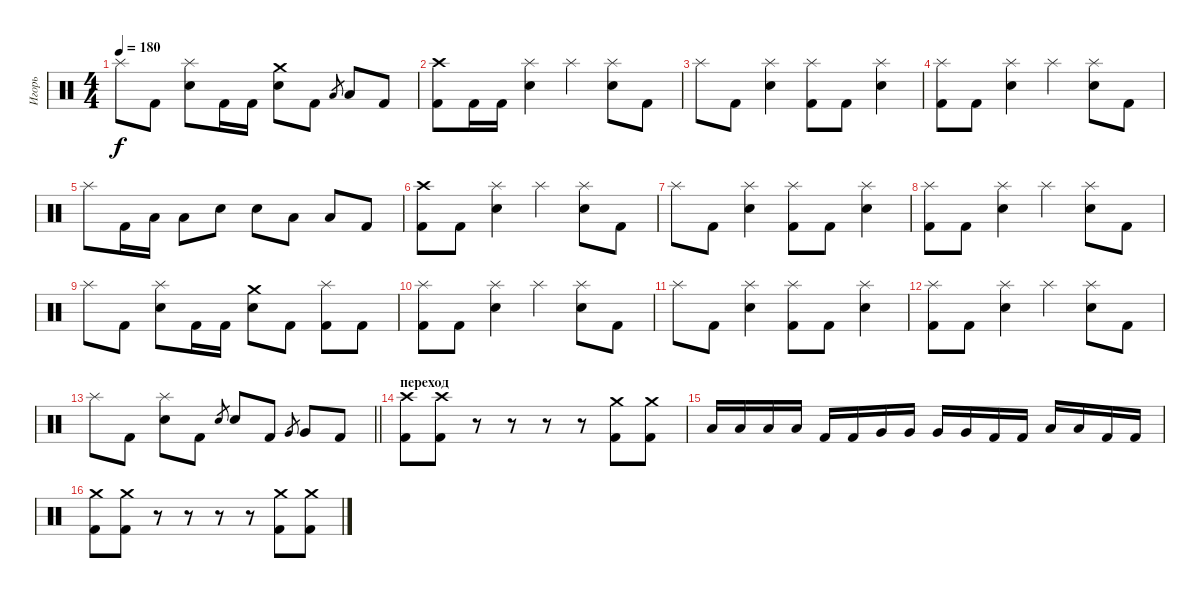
\track ("Игорь" "Игорь") {instrument percussion}
\staff {score}
\articulation defaults
\ts (4 4)
\tempo 180
\clef neutral
\ks c "Splash (hit)".8{dy f} "Kick (hit) 2".8
("Splash (hit)" "Electric Snare (hit)").8 "Kick (hit) 2".16 "Kick (hit) 2".16 ("Crash medium (hit)" "Electric Snare (hit)").8 "Kick (hit) 2".8 "Low Tom (hit)".8{gr} "Low Tom (hit)".8 "Kick (hit) 2".8 |
("Crash high (hit)" "Kick (hit) 2").8 "Kick (hit) 2".16 "Kick (hit) 2".16 ("Splash (hit)" "Electric Snare (hit)").4 "Splash (hit)".4 ("Splash (hit)" "Electric Snare (hit)").8 "Kick (hit) 2".8 |
"Splash (hit)".8 "Kick (hit) 2".8 ("Splash (hit)" "Electric Snare (hit)").4 ("Splash (hit)" "Kick (hit) 2").8 "Kick (hit) 2".8 ("Splash (hit)" "Electric Snare (hit)").4 |
("Splash (hit)" "Kick (hit) 2").8 "Kick (hit) 2".8 ("Splash (hit)" "Electric Snare (hit)").4 "Splash (hit)".4 ("Splash (hit)" "Electric Snare (hit)").8 "Kick (hit) 2".8 |
"Splash (hit)".8 "Kick (hit) 2".16 "Low Tom (hit)".16 "Low Tom (hit)".8 "Electric Snare (hit)".8 "Electric Snare (hit)".8 "Low Tom (hit)".8 "Low Floor Tom (hit)".8 "Kick (hit) 2".8 |
("Crash high (hit)" "Kick (hit) 2").8 "Kick (hit) 2".8 ("Splash (hit)" "Electric Snare (hit)").4 "Splash (hit)".4 ("Splash (hit)" "Electric Snare (hit)").8 "Kick (hit) 2".8 |
"Splash (hit)".8 "Kick (hit) 2".8 ("Splash (hit)" "Electric Snare (hit)").4 ("Splash (hit)" "Kick (hit) 2").8 "Kick (hit) 2".8 ("Splash (hit)" "Electric Snare (hit)").4 |
("Splash (hit)" "Kick (hit) 2").8 "Kick (hit) 2".8 ("Splash (hit)" "Electric Snare (hit)").4 "Splash (hit)".4 ("Splash (hit)" "Electric Snare (hit)").8 "Kick (hit) 2".8 |
"Splash (hit)".8 "Kick (hit) 2".8 ("Splash (hit)" "Electric Snare (hit)").8 "Kick (hit) 2".16 "Kick (hit) 2".16 ("Crash medium (hit)" "Electric Snare (hit)").8 "Kick (hit) 2".8 ("Splash (hit)" "Kick (hit) 2").8 "Kick (hit) 2".8 |
("Splash (hit)" "Kick (hit) 2").8 "Kick (hit) 2".8 ("Splash (hit)" "Electric Snare (hit)").4 "Splash (hit)".4 ("Splash (hit)" "Electric Snare (hit)").8 "Kick (hit) 2".8 |
"Splash (hit)".8 "Kick (hit) 2".8 ("Splash (hit)" "Electric Snare (hit)").4 ("Splash (hit)" "Kick (hit) 2").8 "Kick (hit) 2".8 ("Splash (hit)" "Electric Snare (hit)").4 |
("Splash (hit)" "Kick (hit) 2").8 "Kick (hit) 2".8 ("Splash (hit)" "Electric Snare (hit)").4 "Splash (hit)".4 ("Splash (hit)" "Electric Snare (hit)").8 "Kick (hit) 2".8 |
\barLineRight lightlight "Splash (hit)".8 "Kick (hit) 2".8
("Splash (hit)" "Electric Snare (hit)").8 "Kick (hit) 2".8 "Electric Snare (hit)".8{gr} "Electric Snare (hit)".8 "Kick (hit) 2".8 "Very Low Tom (hit)".8{gr} "Very Low Tom (hit)".8 "Kick (hit) 2".8 |
\section ("" "переход")
("Crash high (hit)" "Kick (hit) 2").8 ("Crash high (hit)" "Kick (hit) 2").8 r.8 r.8 r.8 r.8 ("Crash medium (hit)" "Kick (hit) 2").8 ("Crash medium (hit)" "Kick (hit) 2").8 |
"Low Tom (hit)".16 "Low Tom (hit)".16 "Low Tom (hit)".16 "Low Tom (hit)".16 "Kick (hit) 2".16 "Kick (hit) 2".16 "Very Low Tom (hit)".16 "Very Low Tom (hit)".16 "Very Low Tom (hit)".16 "Very Low Tom (hit)".16 "Kick (hit) 2".16 "Kick (hit) 2".16 "Low Floor Tom (hit)".16 "Low Floor Tom (hit)".16 "Kick (hit) 2".16 "Kick (hit) 2".16 |
("Crash medium (hit)" "Kick (hit) 2").8 ("Crash medium (hit)" "Kick (hit) 2").8 r.8 r.8 r.8 r.8 ("Crash medium (hit)" "Kick (hit) 2").8 ("Crash medium (hit)" "Kick (hit) 2").8
